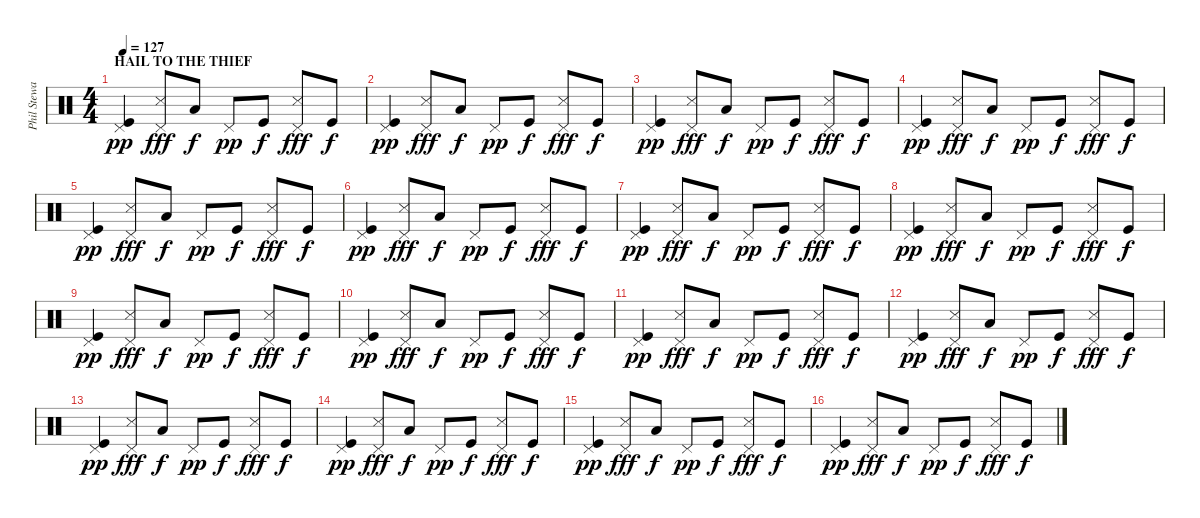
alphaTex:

\track ("Phil Steway" "Phil Stewa") {instrument percussion}
\staff {score}
\articulation defaults
\ts (4 4)
\section ("" "HAIL TO THE THIEF")
\tempo 127
\clef neutral
\ks c
("Pedal Hi-Hat (hit)" "Kick (hit)").4{dy pp} ("Pedal Hi-Hat (hit)" "Snare (side stick) 3").8{dy fff} "Low Tom (hit)".8{dy f} "Pedal Hi-Hat (hit)".8{dy pp} "Kick (hit)".8{dy f} ("Pedal Hi-Hat (hit)" "Snare (side stick) 3").8{dy fff} "Kick (hit)".8{dy f} |
("Pedal Hi-Hat (hit)" "Kick (hit)").4{dy pp} ("Pedal Hi-Hat (hit)" "Snare (side stick) 3").8{dy fff} "Low Tom (hit)".8{dy f} "Pedal Hi-Hat (hit)".8{dy pp} "Kick (hit)".8{dy f} ("Pedal Hi-Hat (hit)" "Snare (side stick) 3").8{dy fff} "Kick (hit)".8{dy f} |
("Pedal Hi-Hat (hit)" "Kick (hit)").4{dy pp} ("Pedal Hi-Hat (hit)" "Snare (side stick) 3").8{dy fff} "Low Tom (hit)".8{dy f} "Pedal Hi-Hat (hit)".8{dy pp} "Kick (hit)".8{dy f} ("Pedal Hi-Hat (hit)" "Snare (side stick) 3").8{dy fff} "Kick (hit)".8{dy f} |
("Pedal Hi-Hat (hit)" "Kick (hit)").4{dy pp} ("Pedal Hi-Hat (hit)" "Snare (side stick) 3").8{dy fff} "Low Tom (hit)".8{dy f} "Pedal Hi-Hat (hit)".8{dy pp} "Kick (hit)".8{dy f} ("Pedal Hi-Hat (hit)" "Snare (side stick) 3").8{dy fff} "Kick (hit)".8{dy f} |
("Pedal Hi-Hat (hit)" "Kick (hit)").4{dy pp} ("Pedal Hi-Hat (hit)" "Snare (side stick) 3").8{dy fff} "Low Tom (hit)".8{dy f} "Pedal Hi-Hat (hit)".8{dy pp} "Kick (hit)".8{dy f} ("Pedal Hi-Hat (hit)" "Snare (side stick) 3").8{dy fff} "Kick (hit)".8{dy f} |
("Pedal Hi-Hat (hit)" "Kick (hit)").4{dy pp} ("Pedal Hi-Hat (hit)" "Snare (side stick) 3").8{dy fff} "Low Tom (hit)".8{dy f} "Pedal Hi-Hat (hit)".8{dy pp} "Kick (hit)".8{dy f} ("Pedal Hi-Hat (hit)" "Snare (side stick) 3").8{dy fff} "Kick (hit)".8{dy f} |
("Pedal Hi-Hat (hit)" "Kick (hit)").4{dy pp} ("Pedal Hi-Hat (hit)" "Snare (side stick) 3").8{dy fff} "Low Tom (hit)".8{dy f} "Pedal Hi-Hat (hit)".8{dy pp} "Kick (hit)".8{dy f} ("Pedal Hi-Hat (hit)" "Snare (side stick) 3").8{dy fff} "Kick (hit)".8{dy f} |
("Pedal Hi-Hat (hit)" "Kick (hit)").4{dy pp} ("Pedal Hi-Hat (hit)" "Snare (side stick) 3").8{dy fff} "Low Tom (hit)".8{dy f} "Pedal Hi-Hat (hit)".8{dy pp} "Kick (hit)".8{dy f} ("Pedal Hi-Hat (hit)" "Snare (side stick) 3").8{dy fff} "Kick (hit)".8{dy f} |
("Pedal Hi-Hat (hit)" "Kick (hit)").4{dy pp} ("Pedal Hi-Hat (hit)" "Snare (side stick) 3").8{dy fff} "Low Tom (hit)".8{dy f} "Pedal Hi-Hat (hit)".8{dy pp} "Kick (hit)".8{dy f} ("Pedal Hi-Hat (hit)" "Snare (side stick) 3").8{dy fff} "Kick (hit)".8{dy f} |
("Pedal Hi-Hat (hit)" "Kick (hit)").4{dy pp} ("Pedal Hi-Hat (hit)" "Snare (side stick) 3").8{dy fff} "Low Tom (hit)".8{dy f} "Pedal Hi-Hat (hit)".8{dy pp} "Kick (hit)".8{dy f} ("Pedal Hi-Hat (hit)" "Snare (side stick) 3").8{dy fff} "Kick (hit)".8{dy f} |
("Pedal Hi-Hat (hit)" "Kick (hit)").4{dy pp} ("Pedal Hi-Hat (hit)" "Snare (side stick) 3").8{dy fff} "Low Tom (hit)".8{dy f} "Pedal Hi-Hat (hit)".8{dy pp} "Kick (hit)".8{dy f} ("Pedal Hi-Hat (hit)" "Snare (side stick) 3").8{dy fff} "Kick (hit)".8{dy f} |
("Pedal Hi-Hat (hit)" "Kick (hit)").4{dy pp} ("Pedal Hi-Hat (hit)" "Snare (side stick) 3").8{dy fff} "Low Tom (hit)".8{dy f} "Pedal Hi-Hat (hit)".8{dy pp} "Kick (hit)".8{dy f} ("Pedal Hi-Hat (hit)" "Snare (side stick) 3").8{dy fff} "Kick (hit)".8{dy f} |
("Pedal Hi-Hat (hit)" "Kick (hit)").4{dy pp} ("Pedal Hi-Hat (hit)" "Snare (side stick) 3").8{dy fff} "Low Tom (hit)".8{dy f} "Pedal Hi-Hat (hit)".8{dy pp} "Kick (hit)".8{dy f} ("Pedal Hi-Hat (hit)" "Snare (side stick) 3").8{dy fff} "Kick (hit)".8{dy f} |
("Pedal Hi-Hat (hit)" "Kick (hit)").4{dy pp} ("Pedal Hi-Hat (hit)" "Snare (side stick) 3").8{dy fff} "Low Tom (hit)".8{dy f} "Pedal Hi-Hat (hit)".8{dy pp} "Kick (hit)".8{dy f} ("Pedal Hi-Hat (hit)" "Snare (side stick) 3").8{dy fff} "Kick (hit)".8{dy f} |
("Pedal Hi-Hat (hit)" "Kick (hit)").4{dy pp} ("Pedal Hi-Hat (hit)" "Snare (side stick) 3").8{dy fff} "Low Tom (hit)".8{dy f} "Pedal Hi-Hat (hit)".8{dy pp} "Kick (hit)".8{dy f} ("Pedal Hi-Hat (hit)" "Snare (side stick) 3").8{dy fff} "Kick (hit)".8{dy f} |
("Pedal Hi-Hat (hit)" "Kick (hit)").4{dy pp} ("Pedal Hi-Hat (hit)" "Snare (side stick) 3").8{dy fff} "Low Tom (hit)".8{dy f} "Pedal Hi-Hat (hit)".8{dy pp} "Kick (hit)".8{dy f} ("Pedal Hi-Hat (hit)" "Snare (side stick) 3").8{dy fff} "Kick (hit)".8{dy f}
